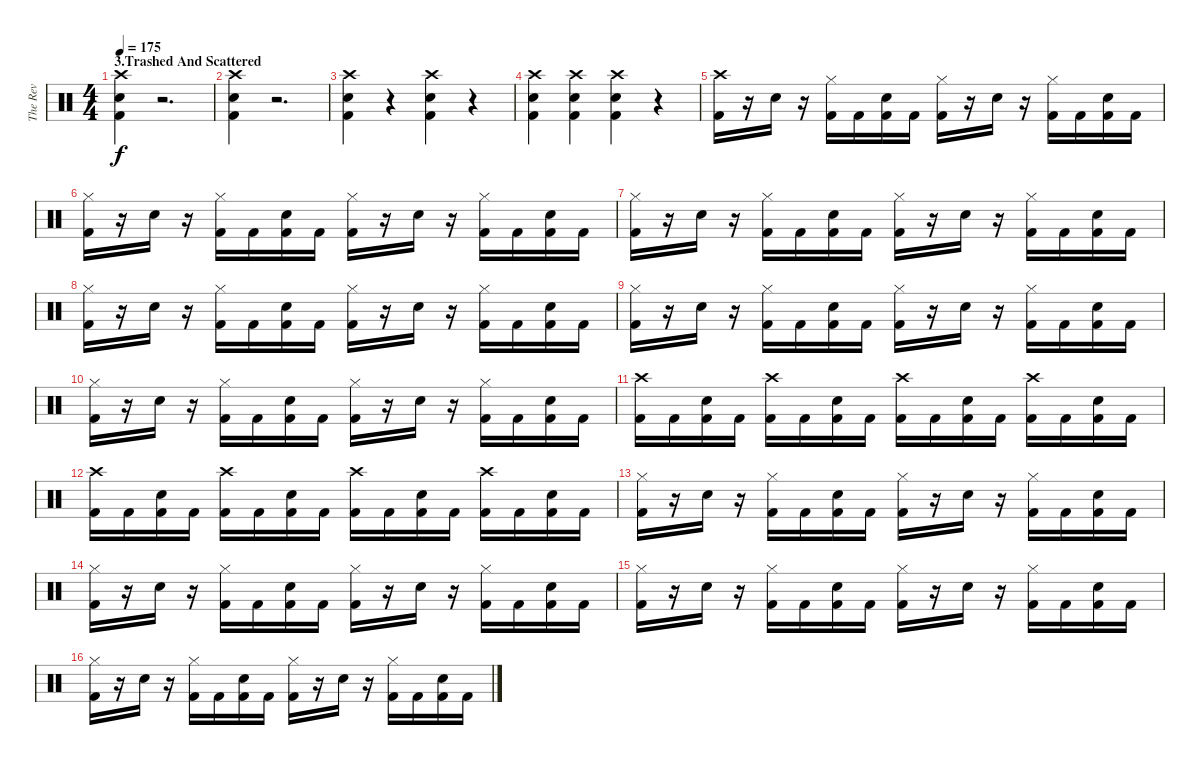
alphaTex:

\track ("The Rev" "The Rev") {instrument percussion}
\staff {score}
\articulation defaults
\ts (4 4)
\section ("" "3.Trashed And Scattered")
\tempo 175
\clef neutral
\ks c
("Crash high (hit)" "Electric Snare (hit)" "Kick (hit) 2").4{dy f} r.2{d} |
("Crash high (hit)" "Electric Snare (hit)" "Kick (hit) 2").4 r.2{d} |
("Crash high (hit)" "Electric Snare (hit)" "Kick (hit) 2").4 r.4 ("Crash high (hit)" "Electric Snare (hit)" "Kick (hit) 2").4 r.4 |
("Crash high (hit)" "Electric Snare (hit)" "Kick (hit) 2").4 ("Crash high (hit)" "Electric Snare (hit)" "Kick (hit) 2").4 ("Crash high (hit)" "Electric Snare (hit)" "Kick (hit) 2").4 r.4 |
("Crash high (hit)" "Kick (hit) 2").16 r.16 "Electric Snare (hit)".16 r.16 ("Hi-Hat (closed)" "Kick (hit) 2").16 "Kick (hit) 2".16 ("Electric Snare (hit)" "Kick (hit) 2").16 "Kick (hit) 2".16 ("Hi-Hat (closed)" "Kick (hit) 2").16 r.16 "Electric Snare (hit)".16 r.16 ("Hi-Hat (closed)" "Kick (hit) 2").16 "Kick (hit) 2".16 ("Electric Snare (hit)" "Kick (hit) 2").16 "Kick (hit) 2".16 |
("Hi-Hat (closed)" "Kick (hit) 2").16 r.16 "Electric Snare (hit)".16 r.16 ("Hi-Hat (closed)" "Kick (hit) 2").16 "Kick (hit) 2".16 ("Electric Snare (hit)" "Kick (hit) 2").16 "Kick (hit) 2".16 ("Hi-Hat (closed)" "Kick (hit) 2").16 r.16 "Electric Snare (hit)".16 r.16 ("Hi-Hat (closed)" "Kick (hit) 2").16 "Kick (hit) 2".16 ("Electric Snare (hit)" "Kick (hit) 2").16 "Kick (hit) 2".16 |
("Hi-Hat (closed)" "Kick (hit) 2").16 r.16 "Electric Snare (hit)".16 r.16 ("Hi-Hat (closed)" "Kick (hit) 2").16 "Kick (hit) 2".16 ("Electric Snare (hit)" "Kick (hit) 2").16 "Kick (hit) 2".16 ("Hi-Hat (closed)" "Kick (hit) 2").16 r.16 "Electric Snare (hit)".16 r.16 ("Hi-Hat (closed)" "Kick (hit) 2").16 "Kick (hit) 2".16 ("Electric Snare (hit)" "Kick (hit) 2").16 "Kick (hit) 2".16 |
("Hi-Hat (closed)" "Kick (hit) 2").16 r.16 "Electric Snare (hit)".16 r.16 ("Hi-Hat (closed)" "Kick (hit) 2").16 "Kick (hit) 2".16 ("Electric Snare (hit)" "Kick (hit) 2").16 "Kick (hit) 2".16 ("Hi-Hat (closed)" "Kick (hit) 2").16 r.16 "Electric Snare (hit)".16 r.16 ("Hi-Hat (closed)" "Kick (hit) 2").16 "Kick (hit) 2".16 ("Electric Snare (hit)" "Kick (hit) 2").16 "Kick (hit) 2".16 |
("Hi-Hat (closed)" "Kick (hit) 2").16 r.16 "Electric Snare (hit)".16 r.16 ("Hi-Hat (closed)" "Kick (hit) 2").16 "Kick (hit) 2".16 ("Electric Snare (hit)" "Kick (hit) 2").16 "Kick (hit) 2".16 ("Hi-Hat (closed)" "Kick (hit) 2").16 r.16 "Electric Snare (hit)".16 r.16 ("Hi-Hat (closed)" "Kick (hit) 2").16 "Kick (hit) 2".16 ("Electric Snare (hit)" "Kick (hit) 2").16 "Kick (hit) 2".16 |
("Hi-Hat (closed)" "Kick (hit) 2").16 r.16 "Electric Snare (hit)".16 r.16 ("Hi-Hat (closed)" "Kick (hit) 2").16 "Kick (hit) 2".16 ("Electric Snare (hit)" "Kick (hit) 2").16 "Kick (hit) 2".16 ("Hi-Hat (closed)" "Kick (hit) 2").16 r.16 "Electric Snare (hit)".16 r.16 ("Hi-Hat (closed)" "Kick (hit) 2").16 "Kick (hit) 2".16 ("Electric Snare (hit)" "Kick (hit) 2").16 "Kick (hit) 2".16 |
("Crash high (hit)" "Kick (hit) 2").16 "Kick (hit) 2".16 ("Electric Snare (hit)" "Kick (hit) 2").16 "Kick (hit) 2".16 ("Crash high (hit)" "Kick (hit) 2").16 "Kick (hit) 2".16 ("Electric Snare (hit)" "Kick (hit) 2").16 "Kick (hit) 2".16 ("Crash high (hit)" "Kick (hit) 2").16 "Kick (hit) 2".16 ("Electric Snare (hit)" "Kick (hit) 2").16 "Kick (hit) 2".16 ("Crash high (hit)" "Kick (hit) 2").16 "Kick (hit) 2".16 ("Electric Snare (hit)" "Kick (hit) 2").16 "Kick (hit) 2".16 |
("Crash high (hit)" "Kick (hit) 2").16 "Kick (hit) 2".16 ("Electric Snare (hit)" "Kick (hit) 2").16 "Kick (hit) 2".16 ("Crash high (hit)" "Kick (hit) 2").16 "Kick (hit) 2".16 ("Electric Snare (hit)" "Kick (hit) 2").16 "Kick (hit) 2".16 ("Crash high (hit)" "Kick (hit) 2").16 "Kick (hit) 2".16 ("Electric Snare (hit)" "Kick (hit) 2").16 "Kick (hit) 2".16 ("Crash high (hit)" "Kick (hit) 2").16 "Kick (hit) 2".16 ("Electric Snare (hit)" "Kick (hit) 2").16 "Kick (hit) 2".16 |
("Hi-Hat (closed)" "Kick (hit) 2").16 r.16 "Electric Snare (hit)".16 r.16 ("Hi-Hat (closed)" "Kick (hit) 2").16 "Kick (hit) 2".16 ("Electric Snare (hit)" "Kick (hit) 2").16 "Kick (hit) 2".16 ("Hi-Hat (closed)" "Kick (hit) 2").16 r.16 "Electric Snare (hit)".16 r.16 ("Hi-Hat (closed)" "Kick (hit) 2").16 "Kick (hit) 2".16 ("Electric Snare (hit)" "Kick (hit) 2").16 "Kick (hit) 2".16 |
("Hi-Hat (closed)" "Kick (hit) 2").16 r.16 "Electric Snare (hit)".16 r.16 ("Hi-Hat (closed)" "Kick (hit) 2").16 "Kick (hit) 2".16 ("Electric Snare (hit)" "Kick (hit) 2").16 "Kick (hit) 2".16 ("Hi-Hat (closed)" "Kick (hit) 2").16 r.16 "Electric Snare (hit)".16 r.16 ("Hi-Hat (closed)" "Kick (hit) 2").16 "Kick (hit) 2".16 ("Electric Snare (hit)" "Kick (hit) 2").16 "Kick (hit) 2".16 |
("Hi-Hat (closed)" "Kick (hit) 2").16 r.16 "Electric Snare (hit)".16 r.16 ("Hi-Hat (closed)" "Kick (hit) 2").16 "Kick (hit) 2".16 ("Electric Snare (hit)" "Kick (hit) 2").16 "Kick (hit) 2".16 ("Hi-Hat (closed)" "Kick (hit) 2").16 r.16 "Electric Snare (hit)".16 r.16 ("Hi-Hat (closed)" "Kick (hit) 2").16 "Kick (hit) 2".16 ("Electric Snare (hit)" "Kick (hit) 2").16 "Kick (hit) 2".16 |
("Hi-Hat (closed)" "Kick (hit) 2").16 r.16 "Electric Snare (hit)".16 r.16 ("Hi-Hat (closed)" "Kick (hit) 2").16 "Kick (hit) 2".16 ("Electric Snare (hit)" "Kick (hit) 2").16 "Kick (hit) 2".16 ("Hi-Hat (closed)" "Kick (hit) 2").16 r.16 "Electric Snare (hit)".16 r.16 ("Hi-Hat (closed)" "Kick (hit) 2").16 "Kick (hit) 2".16 ("Electric Snare (hit)" "Kick (hit) 2").16 "Kick (hit) 2".16
